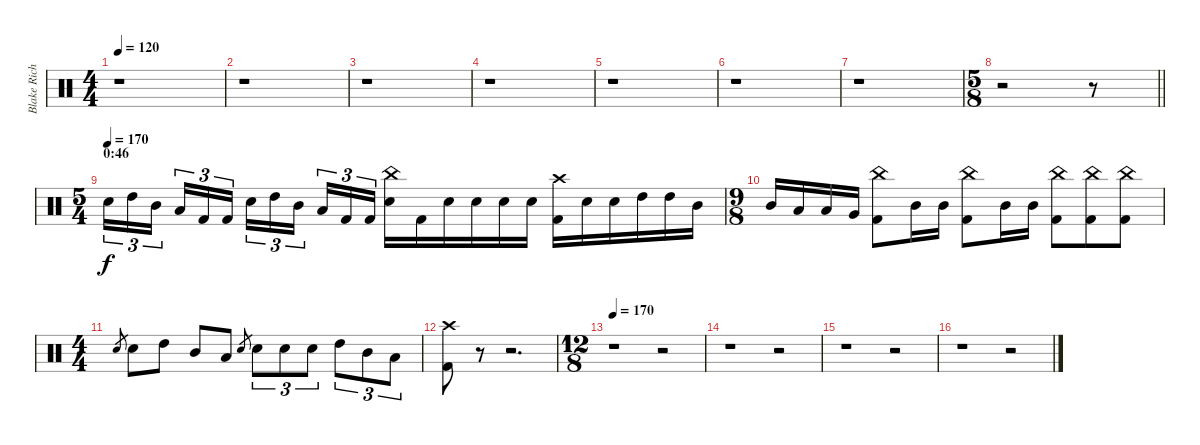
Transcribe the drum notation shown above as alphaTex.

\track ("Blake Richardson" "Blake Rich") {instrument percussion}
\staff {score}
\articulation defaults
\ts (4 4)
\tempo 120
\clef neutral
\ks c
r.1{dy f} |
r.1 |
r.1 |
r.1 |
r.1 |
r.1 |
r.1 |
\ts (5 8)
\barLineRight lightlight
r.2 r.8 |
\ts (5 4)
\section ("" "0:46")
\tempo (170)
"Electric Snare (hit)".16{tu (3 2)} "High Tom (hit)".16{tu (3 2)} "Mid Tom (hit)".16{tu (3 2) beam splitsecondary} "Low Tom (hit)".16{tu (3 2)} "Kick (hit) 2".16{tu (3 2)} "Kick (hit) 2".16{tu (3 2)} "Electric Snare (hit)".16{tu (3 2)} "High Tom (hit)".16{tu (3 2)} "Mid Tom (hit)".16{tu (3 2) beam splitsecondary} "Low Tom (hit)".16{tu (3 2)} "Kick (hit) 2".16{tu (3 2)} "Kick (hit) 2".16{tu (3 2)} ("China (hit)" "Electric Snare (hit)").16 "Kick (hit) 2".16 "Electric Snare (hit)".16 "Electric Snare (hit)".16{beam merge} "Electric Snare (hit)".16 "Electric Snare (hit)".16{beam split} ("Crash high (hit)" "Kick (hit) 2").16 "Electric Snare (hit)".16{beam merge} "Electric Snare (hit)".16 "High Tom (hit)".16 "High Tom (hit)".16 "Mid Tom (hit)".16 |
\ts (9 8)
"Mid Tom (hit)".16 "Low Tom (hit)".16 "Low Tom (hit)".16 "Very Low Tom (hit)".16{beam split} ("China (hit)" "Kick (hit) 2").8{beam merge} "Mid Tom (hit)".16 "Mid Tom (hit)".16{beam split} ("China (hit)" "Kick (hit) 2").8 "Mid Tom (hit)".16 "Mid Tom (hit)".16{beam split} ("China (hit)" "Kick (hit) 2").8 ("China (hit)" "Kick (hit) 2").8 ("China (hit)" "Kick (hit) 2").8 |
\ts (4 4)
"Electric Snare (hit)".8{gr} "Electric Snare (hit)".8 "High Tom (hit)".8 "Mid Tom (hit)".8 "Low Tom (hit)".8 "Electric Snare (hit)".8{gr} "Electric Snare (hit)".8{tu (3 2)} "Electric Snare (hit)".8{tu (3 2)} "Electric Snare (hit)".8{tu (3 2)} "High Tom (hit)".8{tu (3 2)} "Mid Tom (hit)".8{tu (3 2)} "Low Tom (hit)".8{tu (3 2)} |
("Crash high (hit)" "Kick (hit) 2").8 r.8{volume 0} r.2{d} |
\ts (12 8)
\tempo 170
r.1 r.2 |
r.1 r.2 |
r.1 r.2 |
r.1 r.2
